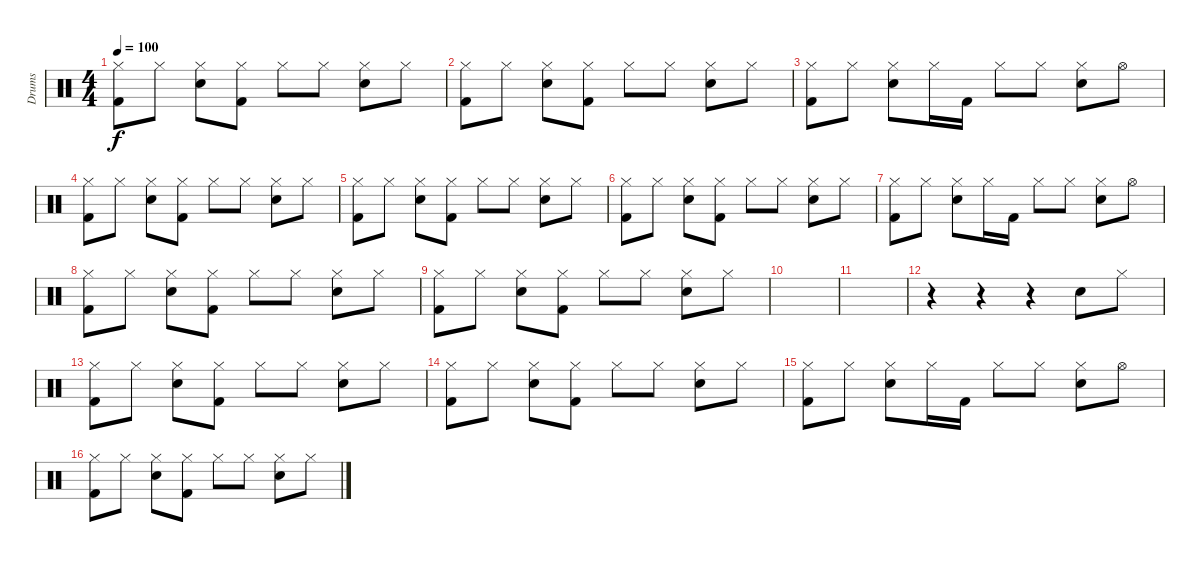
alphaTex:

\track ("Drums" "Drums") {instrument percussion}
\staff {score}
\articulation defaults
\ts (4 4)
\tempo 100
\clef neutral
\ks c
("Kick (hit) 2" "Hi-Hat (closed)").8{dy f} "Hi-Hat (closed)".8 ("Electric Snare (hit)" "Hi-Hat (closed)").8 ("Kick (hit) 2" "Hi-Hat (closed)").8 "Hi-Hat (closed)".8 "Hi-Hat (closed)".8 ("Electric Snare (hit)" "Hi-Hat (closed)").8 "Hi-Hat (closed)".8 |
("Kick (hit) 2" "Hi-Hat (closed)").8 "Hi-Hat (closed)".8 ("Electric Snare (hit)" "Hi-Hat (closed)").8 ("Kick (hit) 2" "Hi-Hat (closed)").8 "Hi-Hat (closed)".8 "Hi-Hat (closed)".8 ("Electric Snare (hit)" "Hi-Hat (closed)").8 "Hi-Hat (closed)".8 |
("Kick (hit) 2" "Hi-Hat (closed)").8 "Hi-Hat (closed)".8 ("Electric Snare (hit)" "Hi-Hat (closed)").8 "Hi-Hat (closed)".16 "Kick (hit) 2".16 "Hi-Hat (closed)".8 "Hi-Hat (closed)".8 ("Electric Snare (hit)" "Hi-Hat (closed)").8 "Hi-Hat (open)".8 |
("Kick (hit) 2" "Hi-Hat (closed)").8 "Hi-Hat (closed)".8 ("Electric Snare (hit)" "Hi-Hat (closed)").8 ("Kick (hit) 2" "Hi-Hat (closed)").8 "Hi-Hat (closed)".8 "Hi-Hat (closed)".8 ("Electric Snare (hit)" "Hi-Hat (closed)").8 "Hi-Hat (closed)".8 |
("Kick (hit) 2" "Hi-Hat (closed)").8 "Hi-Hat (closed)".8 ("Electric Snare (hit)" "Hi-Hat (closed)").8 ("Kick (hit) 2" "Hi-Hat (closed)").8 "Hi-Hat (closed)".8 "Hi-Hat (closed)".8 ("Electric Snare (hit)" "Hi-Hat (closed)").8 "Hi-Hat (closed)".8 |
("Kick (hit) 2" "Hi-Hat (closed)").8 "Hi-Hat (closed)".8 ("Electric Snare (hit)" "Hi-Hat (closed)").8 ("Kick (hit) 2" "Hi-Hat (closed)").8 "Hi-Hat (closed)".8 "Hi-Hat (closed)".8 ("Electric Snare (hit)" "Hi-Hat (closed)").8 "Hi-Hat (closed)".8 |
("Kick (hit) 2" "Hi-Hat (closed)").8 "Hi-Hat (closed)".8 ("Electric Snare (hit)" "Hi-Hat (closed)").8 "Hi-Hat (closed)".16 "Kick (hit) 2".16 "Hi-Hat (closed)".8 "Hi-Hat (closed)".8 ("Electric Snare (hit)" "Hi-Hat (closed)").8 "Hi-Hat (open)".8 |
("Kick (hit) 2" "Hi-Hat (closed)").8 "Hi-Hat (closed)".8 ("Electric Snare (hit)" "Hi-Hat (closed)").8 ("Kick (hit) 2" "Hi-Hat (closed)").8 "Hi-Hat (closed)".8 "Hi-Hat (closed)".8 ("Electric Snare (hit)" "Hi-Hat (closed)").8 "Hi-Hat (closed)".8 |
("Kick (hit) 2" "Hi-Hat (closed)").8 "Hi-Hat (closed)".8 ("Electric Snare (hit)" "Hi-Hat (closed)").8 ("Kick (hit) 2" "Hi-Hat (closed)").8 "Hi-Hat (closed)".8 "Hi-Hat (closed)".8 ("Electric Snare (hit)" "Hi-Hat (closed)").8 "Hi-Hat (closed)".8 |
|
|
r.4 r.4 r.4 "Electric Snare (hit)".8 "Hi-Hat (closed)".8 |
("Kick (hit) 2" "Hi-Hat (closed)").8 "Hi-Hat (closed)".8 ("Electric Snare (hit)" "Hi-Hat (closed)").8 ("Kick (hit) 2" "Hi-Hat (closed)").8 "Hi-Hat (closed)".8 "Hi-Hat (closed)".8 ("Electric Snare (hit)" "Hi-Hat (closed)").8 "Hi-Hat (closed)".8 |
("Kick (hit) 2" "Hi-Hat (closed)").8 "Hi-Hat (closed)".8 ("Electric Snare (hit)" "Hi-Hat (closed)").8 ("Kick (hit) 2" "Hi-Hat (closed)").8 "Hi-Hat (closed)".8 "Hi-Hat (closed)".8 ("Electric Snare (hit)" "Hi-Hat (closed)").8 "Hi-Hat (closed)".8 |
("Kick (hit) 2" "Hi-Hat (closed)").8 "Hi-Hat (closed)".8 ("Electric Snare (hit)" "Hi-Hat (closed)").8 "Hi-Hat (closed)".16 "Kick (hit) 2".16 "Hi-Hat (closed)".8 "Hi-Hat (closed)".8 ("Electric Snare (hit)" "Hi-Hat (closed)").8 "Hi-Hat (open)".8 |
("Kick (hit) 2" "Hi-Hat (closed)").8 "Hi-Hat (closed)".8 ("Electric Snare (hit)" "Hi-Hat (closed)").8 ("Kick (hit) 2" "Hi-Hat (closed)").8 "Hi-Hat (closed)".8 "Hi-Hat (closed)".8 ("Electric Snare (hit)" "Hi-Hat (closed)").8 "Hi-Hat (closed)".8
